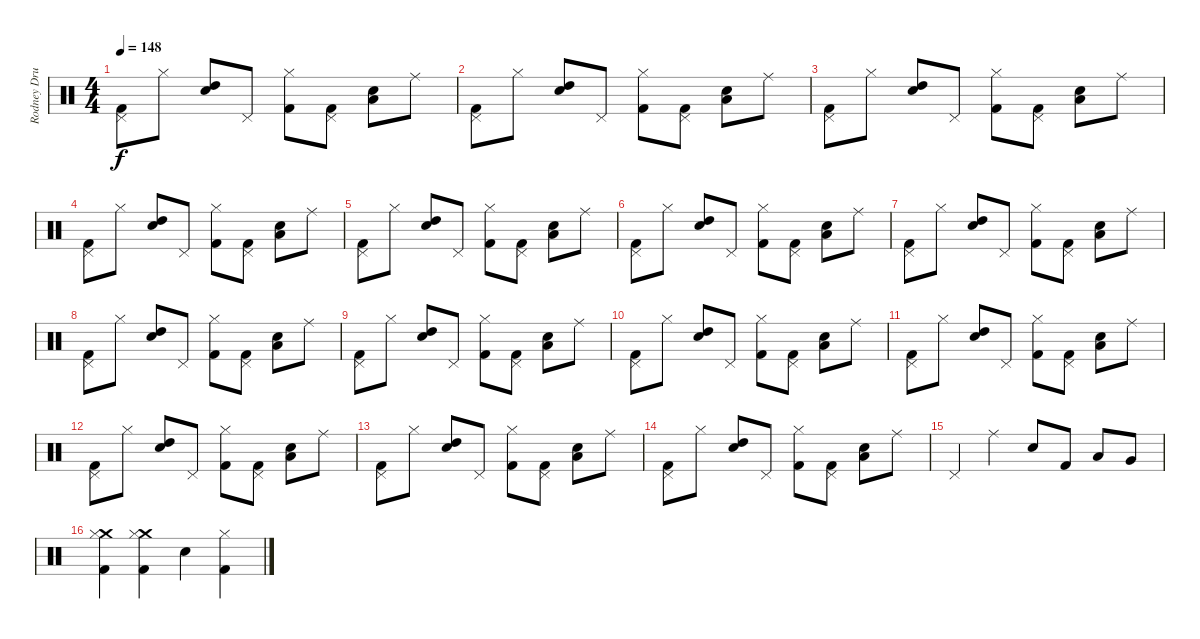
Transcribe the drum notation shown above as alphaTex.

\track ("Rodney Drums" "Rodney Dru") {instrument percussion}
\staff {score}
\articulation defaults
\ts (4 4)
\tempo 148
\clef neutral
\ks c
("Pedal Hi-Hat (hit)" "Kick (hit) 2").8{dy f} "Hi-Hat (closed)".8 ("High Tom (hit)" "Electric Snare (hit)").8 "Pedal Hi-Hat (hit)".8 ("Hi-Hat (closed)" "Kick (hit) 2").8 ("Pedal Hi-Hat (hit)" "Kick (hit) 2").8 ("Low Tom (hit)" "Electric Snare (hit)").8 "Ride (middle)".8 |
("Pedal Hi-Hat (hit)" "Kick (hit) 2").8 "Hi-Hat (closed)".8 ("High Tom (hit)" "Electric Snare (hit)").8 "Pedal Hi-Hat (hit)".8 ("Hi-Hat (closed)" "Kick (hit) 2").8 ("Pedal Hi-Hat (hit)" "Kick (hit) 2").8 ("Low Tom (hit)" "Electric Snare (hit)").8 "Ride (middle)".8 |
("Pedal Hi-Hat (hit)" "Kick (hit) 2").8 "Hi-Hat (closed)".8 ("High Tom (hit)" "Electric Snare (hit)").8 "Pedal Hi-Hat (hit)".8 ("Hi-Hat (closed)" "Kick (hit) 2").8 ("Pedal Hi-Hat (hit)" "Kick (hit) 2").8 ("Low Tom (hit)" "Electric Snare (hit)").8 "Ride (middle)".8 |
("Pedal Hi-Hat (hit)" "Kick (hit) 2").8 "Hi-Hat (closed)".8 ("High Tom (hit)" "Electric Snare (hit)").8 "Pedal Hi-Hat (hit)".8 ("Hi-Hat (closed)" "Kick (hit) 2").8 ("Pedal Hi-Hat (hit)" "Kick (hit) 2").8 ("Low Tom (hit)" "Electric Snare (hit)").8 "Ride (middle)".8 |
("Pedal Hi-Hat (hit)" "Kick (hit) 2").8 "Hi-Hat (closed)".8 ("High Tom (hit)" "Electric Snare (hit)").8 "Pedal Hi-Hat (hit)".8 ("Hi-Hat (closed)" "Kick (hit) 2").8 ("Pedal Hi-Hat (hit)" "Kick (hit) 2").8 ("Low Tom (hit)" "Electric Snare (hit)").8 "Ride (middle)".8 |
("Pedal Hi-Hat (hit)" "Kick (hit) 2").8 "Hi-Hat (closed)".8 ("High Tom (hit)" "Electric Snare (hit)").8 "Pedal Hi-Hat (hit)".8 ("Hi-Hat (closed)" "Kick (hit) 2").8 ("Pedal Hi-Hat (hit)" "Kick (hit) 2").8 ("Low Tom (hit)" "Electric Snare (hit)").8 "Ride (middle)".8 |
("Pedal Hi-Hat (hit)" "Kick (hit) 2").8 "Hi-Hat (closed)".8 ("High Tom (hit)" "Electric Snare (hit)").8 "Pedal Hi-Hat (hit)".8 ("Hi-Hat (closed)" "Kick (hit) 2").8 ("Pedal Hi-Hat (hit)" "Kick (hit) 2").8 ("Low Tom (hit)" "Electric Snare (hit)").8 "Ride (middle)".8 |
("Pedal Hi-Hat (hit)" "Kick (hit) 2").8 "Hi-Hat (closed)".8 ("High Tom (hit)" "Electric Snare (hit)").8 "Pedal Hi-Hat (hit)".8 ("Hi-Hat (closed)" "Kick (hit) 2").8 ("Pedal Hi-Hat (hit)" "Kick (hit) 2").8 ("Low Tom (hit)" "Electric Snare (hit)").8 "Ride (middle)".8 |
("Pedal Hi-Hat (hit)" "Kick (hit) 2").8 "Hi-Hat (closed)".8 ("High Tom (hit)" "Electric Snare (hit)").8 "Pedal Hi-Hat (hit)".8 ("Hi-Hat (closed)" "Kick (hit) 2").8 ("Pedal Hi-Hat (hit)" "Kick (hit) 2").8 ("Low Tom (hit)" "Electric Snare (hit)").8 "Ride (middle)".8 |
("Pedal Hi-Hat (hit)" "Kick (hit) 2").8 "Hi-Hat (closed)".8 ("High Tom (hit)" "Electric Snare (hit)").8 "Pedal Hi-Hat (hit)".8 ("Hi-Hat (closed)" "Kick (hit) 2").8 ("Pedal Hi-Hat (hit)" "Kick (hit) 2").8 ("Low Tom (hit)" "Electric Snare (hit)").8 "Ride (middle)".8 |
("Pedal Hi-Hat (hit)" "Kick (hit) 2").8 "Hi-Hat (closed)".8 ("High Tom (hit)" "Electric Snare (hit)").8 "Pedal Hi-Hat (hit)".8 ("Hi-Hat (closed)" "Kick (hit) 2").8 ("Pedal Hi-Hat (hit)" "Kick (hit) 2").8 ("Low Tom (hit)" "Electric Snare (hit)").8 "Ride (middle)".8 |
("Pedal Hi-Hat (hit)" "Kick (hit) 2").8 "Hi-Hat (closed)".8 ("High Tom (hit)" "Electric Snare (hit)").8 "Pedal Hi-Hat (hit)".8 ("Hi-Hat (closed)" "Kick (hit) 2").8 ("Pedal Hi-Hat (hit)" "Kick (hit) 2").8 ("Low Tom (hit)" "Electric Snare (hit)").8 "Ride (middle)".8 |
("Pedal Hi-Hat (hit)" "Kick (hit) 2").8 "Hi-Hat (closed)".8 ("High Tom (hit)" "Electric Snare (hit)").8 "Pedal Hi-Hat (hit)".8 ("Hi-Hat (closed)" "Kick (hit) 2").8 ("Pedal Hi-Hat (hit)" "Kick (hit) 2").8 ("Low Tom (hit)" "Electric Snare (hit)").8 "Ride (middle)".8 |
("Pedal Hi-Hat (hit)" "Kick (hit) 2").8 "Hi-Hat (closed)".8 ("High Tom (hit)" "Electric Snare (hit)").8 "Pedal Hi-Hat (hit)".8 ("Hi-Hat (closed)" "Kick (hit) 2").8 ("Pedal Hi-Hat (hit)" "Kick (hit) 2").8 ("Low Tom (hit)" "Electric Snare (hit)").8 "Ride (middle)".8 |
"Pedal Hi-Hat (hit)".4 "Ride (middle)".4 "Electric Snare (hit)".8 "Kick (hit) 2".8 "Low Tom (hit)".8 "Very Low Tom (hit)".8 |
("Crash medium (hit)" "Hi-Hat (closed)" "Kick (hit) 2").4 ("Crash medium (hit)" "Hi-Hat (closed)" "Kick (hit) 2").4 "Electric Snare (hit)".4 ("Hi-Hat (closed)" "Kick (hit) 2").4
